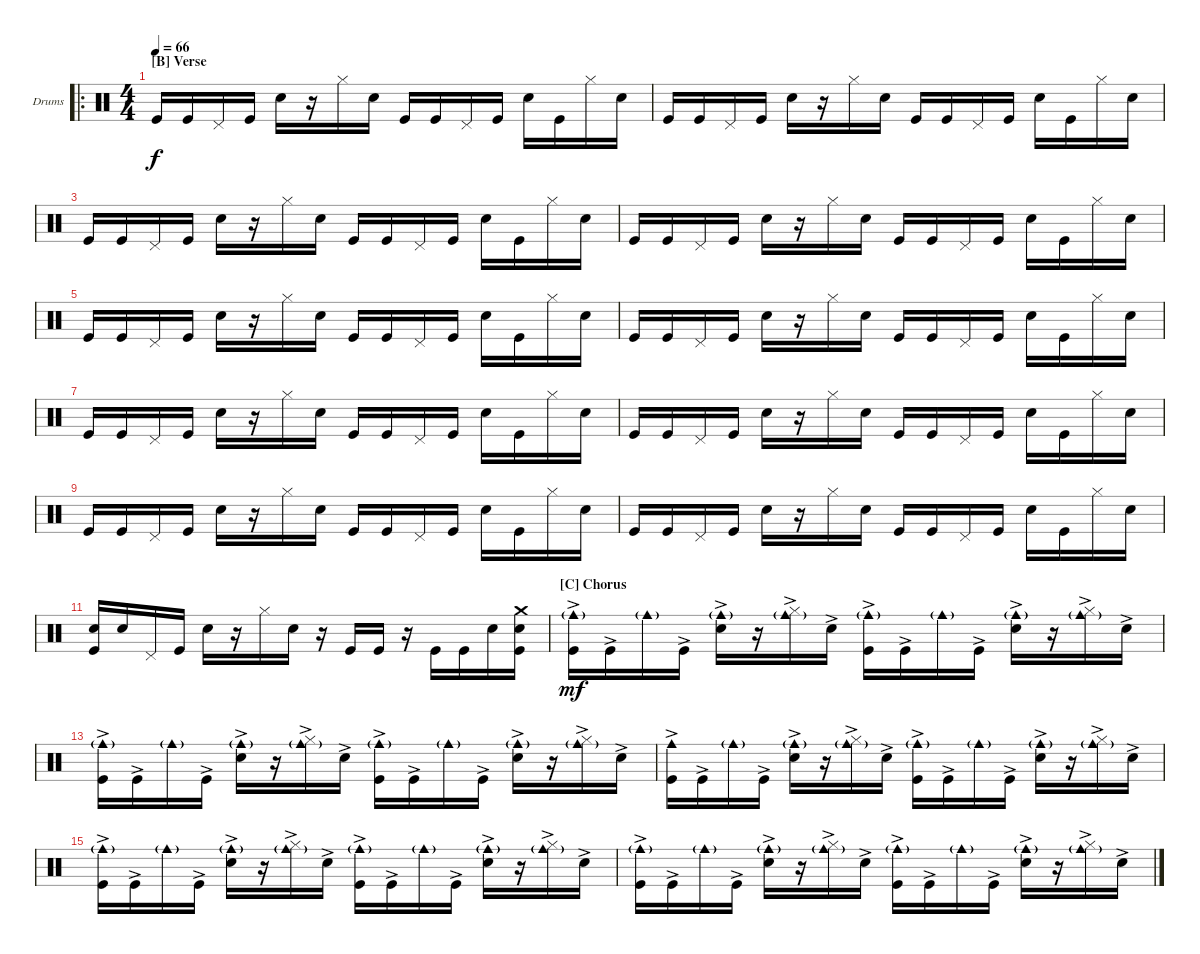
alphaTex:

\bracketExtendMode nobrackets
\firstSystemTrackNameOrientation horizontal
\otherSystemsTrackNameOrientation horizontal
\defaultBarNumberDisplay FirstOfSystem
\track ("Drumkit" "Drums") {instrument percussion}
\staff {score}
\articulation defaults
\ro
\ts (4 4)
\section ("B" "Verse")
\tempo 66
\clef neutral
\ks c "Kick (hit)".16{dy f} "Kick (hit)".16 "Pedal Hi-Hat (hit)".16 "Kick (hit)".16 "Snare (hit) 2".16
r.16 "Hi-Hat (closed)".16 "Snare (hit) 2".16 "Kick (hit)".16 "Kick (hit)".16 "Pedal Hi-Hat (hit)".16 "Kick (hit)".16 "Snare (hit) 2".16 "Kick (hit)".16 "Hi-Hat (closed)".16 "Snare (hit) 2".16 |
"Kick (hit)".16 "Kick (hit)".16 "Pedal Hi-Hat (hit)".16 "Kick (hit)".16 "Snare (hit) 2".16 r.16 "Hi-Hat (closed)".16 "Snare (hit) 2".16 "Kick (hit)".16 "Kick (hit)".16 "Pedal Hi-Hat (hit)".16 "Kick (hit)".16 "Snare (hit) 2".16 "Kick (hit)".16 "Hi-Hat (closed)".16 "Snare (hit) 2".16 |
"Kick (hit)".16 "Kick (hit)".16 "Pedal Hi-Hat (hit)".16 "Kick (hit)".16 "Snare (hit) 2".16 r.16 "Hi-Hat (closed)".16 "Snare (hit) 2".16 "Kick (hit)".16 "Kick (hit)".16 "Pedal Hi-Hat (hit)".16 "Kick (hit)".16 "Snare (hit) 2".16 "Kick (hit)".16 "Hi-Hat (closed)".16 "Snare (hit) 2".16 |
"Kick (hit)".16 "Kick (hit)".16 "Pedal Hi-Hat (hit)".16 "Kick (hit)".16 "Snare (hit) 2".16 r.16 "Hi-Hat (closed)".16 "Snare (hit) 2".16 "Kick (hit)".16 "Kick (hit)".16 "Pedal Hi-Hat (hit)".16 "Kick (hit)".16 "Snare (hit) 2".16 "Kick (hit)".16 "Hi-Hat (closed)".16 "Snare (hit) 2".16 |
"Kick (hit)".16 "Kick (hit)".16 "Pedal Hi-Hat (hit)".16 "Kick (hit)".16 "Snare (hit) 2".16 r.16 "Hi-Hat (closed)".16 "Snare (hit) 2".16 "Kick (hit)".16 "Kick (hit)".16 "Pedal Hi-Hat (hit)".16 "Kick (hit)".16 "Snare (hit) 2".16 "Kick (hit)".16 "Hi-Hat (closed)".16 "Snare (hit) 2".16 |
"Kick (hit)".16 "Kick (hit)".16 "Pedal Hi-Hat (hit)".16 "Kick (hit)".16 "Snare (hit) 2".16 r.16 "Hi-Hat (closed)".16 "Snare (hit) 2".16 "Kick (hit)".16 "Kick (hit)".16 "Pedal Hi-Hat (hit)".16 "Kick (hit)".16 "Snare (hit) 2".16 "Kick (hit)".16 "Hi-Hat (closed)".16 "Snare (hit) 2".16 |
"Kick (hit)".16 "Kick (hit)".16 "Pedal Hi-Hat (hit)".16 "Kick (hit)".16 "Snare (hit) 2".16 r.16 "Hi-Hat (closed)".16 "Snare (hit) 2".16 "Kick (hit)".16 "Kick (hit)".16 "Pedal Hi-Hat (hit)".16 "Kick (hit)".16 "Snare (hit) 2".16 "Kick (hit)".16 "Hi-Hat (closed)".16 "Snare (hit) 2".16 |
"Kick (hit)".16 "Kick (hit)".16 "Pedal Hi-Hat (hit)".16 "Kick (hit)".16 "Snare (hit) 2".16 r.16 "Hi-Hat (closed)".16 "Snare (hit) 2".16 "Kick (hit)".16 "Kick (hit)".16 "Pedal Hi-Hat (hit)".16 "Kick (hit)".16 "Snare (hit) 2".16 "Kick (hit)".16 "Hi-Hat (closed)".16 "Snare (hit) 2".16 |
"Kick (hit)".16 "Kick (hit)".16 "Pedal Hi-Hat (hit)".16 "Kick (hit)".16 "Snare (hit) 2".16 r.16 "Hi-Hat (closed)".16 "Snare (hit) 2".16 "Kick (hit)".16 "Kick (hit)".16 "Pedal Hi-Hat (hit)".16 "Kick (hit)".16 "Snare (hit) 2".16 "Kick (hit)".16 "Hi-Hat (closed)".16 "Snare (hit) 2".16 |
"Kick (hit)".16 "Kick (hit)".16 "Pedal Hi-Hat (hit)".16 "Kick (hit)".16 "Snare (hit) 2".16 r.16 "Hi-Hat (closed)".16 "Snare (hit) 2".16 "Kick (hit)".16 "Kick (hit)".16 "Pedal Hi-Hat (hit)".16 "Kick (hit)".16 "Snare (hit) 2".16 "Kick (hit)".16 "Hi-Hat (closed)".16 "Snare (hit) 2".16 |
("Kick (hit)" "Snare (hit) 2").16 "Snare (hit) 2".16 "Pedal Hi-Hat (hit)".16 "Kick (hit)".16 "Snare (hit) 2".16 r.16 "Hi-Hat (closed)".16 "Snare (hit) 2".16 r.16 "Kick (hit)".16 "Kick (hit)".16 r.16 "Kick (hit)".16 "Kick (hit)".16 "Snare (hit) 2".16 ("Crash medium (hit)" "Snare (hit) 2" "Kick (hit)").16 |
\section ("C" "Chorus")
("Kick (hit)"{ac} "Cowbell medium (hit)"{g}).16{dy mf} "Kick (hit)"{ac}.16 "Cowbell medium (hit)"{g}.16 "Kick (hit)"{ac}.16 ("Snare (hit) 2"{ac} "Cowbell medium (hit)"{g}).16 r.16 ("Hi-Hat (closed)"{ac} "Cowbell medium (hit)"{g}).16 "Snare (hit) 2"{ac}.16 ("Kick (hit)"{ac} "Cowbell medium (hit)"{g}).16 "Kick (hit)"{ac}.16 "Cowbell medium (hit)"{g}.16 "Kick (hit)"{ac}.16 ("Snare (hit) 2"{ac} "Cowbell medium (hit)"{g}).16 r.16 ("Hi-Hat (closed)"{ac} "Cowbell medium (hit)"{g}).16 "Snare (hit) 2"{ac}.16 |
("Kick (hit)"{ac} "Cowbell medium (hit)"{g}).16 "Kick (hit)"{ac}.16 "Cowbell medium (hit)"{g}.16 "Kick (hit)"{ac}.16 ("Snare (hit) 2"{ac} "Cowbell medium (hit)"{g}).16 r.16 ("Hi-Hat (closed)"{ac} "Cowbell medium (hit)"{g}).16 "Snare (hit) 2"{ac}.16 ("Kick (hit)"{ac} "Cowbell medium (hit)"{g}).16 "Kick (hit)"{ac}.16 "Cowbell medium (hit)"{g}.16 "Kick (hit)"{ac}.16 ("Snare (hit) 2"{ac} "Cowbell medium (hit)"{g}).16 r.16 ("Hi-Hat (closed)"{ac} "Cowbell medium (hit)"{g}).16 "Snare (hit) 2"{ac}.16 |
("Kick (hit)"{ac} "Cowbell medium (hit)").16 "Kick (hit)"{ac}.16 "Cowbell medium (hit)"{g}.16 "Kick (hit)"{ac}.16 ("Snare (hit) 2"{ac} "Cowbell medium (hit)"{g}).16 r.16 ("Hi-Hat (closed)"{ac} "Cowbell medium (hit)"{g}).16 "Snare (hit) 2"{ac}.16 ("Kick (hit)"{ac} "Cowbell medium (hit)"{g}).16 "Kick (hit)"{ac}.16 "Cowbell medium (hit)"{g}.16 "Kick (hit)"{ac}.16 ("Snare (hit) 2"{ac} "Cowbell medium (hit)"{g}).16 r.16 ("Hi-Hat (closed)"{ac} "Cowbell medium (hit)"{g}).16 "Snare (hit) 2"{ac}.16 |
("Kick (hit)"{ac} "Cowbell medium (hit)"{g}).16 "Kick (hit)"{ac}.16 "Cowbell medium (hit)"{g}.16 "Kick (hit)"{ac}.16 ("Snare (hit) 2"{ac} "Cowbell medium (hit)"{g}).16 r.16 ("Hi-Hat (closed)"{ac} "Cowbell medium (hit)"{g}).16 "Snare (hit) 2"{ac}.16 ("Kick (hit)"{ac} "Cowbell medium (hit)"{g}).16 "Kick (hit)"{ac}.16 "Cowbell medium (hit)"{g}.16 "Kick (hit)"{ac}.16 ("Snare (hit) 2"{ac} "Cowbell medium (hit)"{g}).16 r.16 ("Hi-Hat (closed)"{ac} "Cowbell medium (hit)"{g}).16 "Snare (hit) 2"{ac}.16 |
("Kick (hit)"{ac} "Cowbell medium (hit)"{g}).16 "Kick (hit)"{ac}.16 "Cowbell medium (hit)"{g}.16 "Kick (hit)"{ac}.16 ("Snare (hit) 2"{ac} "Cowbell medium (hit)"{g}).16 r.16 ("Hi-Hat (closed)"{ac} "Cowbell medium (hit)"{g}).16 "Snare (hit) 2"{ac}.16 ("Kick (hit)"{ac} "Cowbell medium (hit)"{g}).16 "Kick (hit)"{ac}.16 "Cowbell medium (hit)"{g}.16 "Kick (hit)"{ac}.16 ("Snare (hit) 2"{ac} "Cowbell medium (hit)"{g}).16 r.16 ("Hi-Hat (closed)"{ac} "Cowbell medium (hit)"{g}).16 "Snare (hit) 2"{ac}.16
